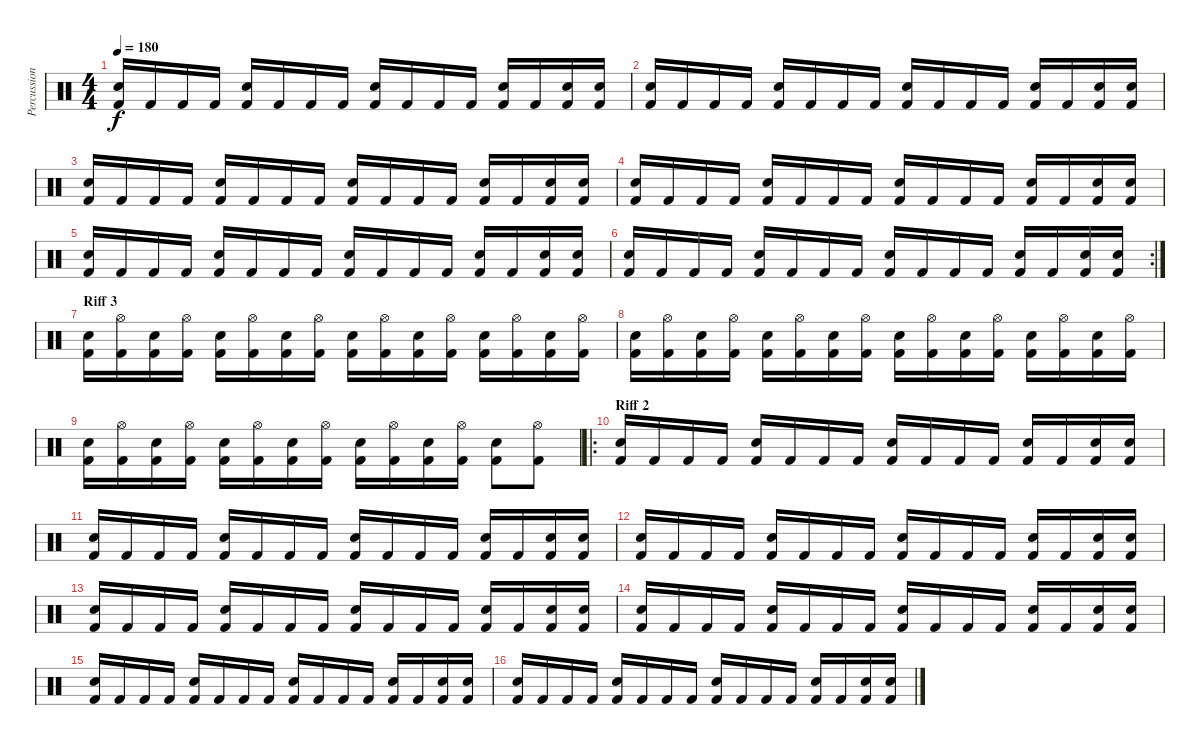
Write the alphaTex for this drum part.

\track ("Percussion" "Percussion") {instrument percussion}
\staff {score}
\articulation defaults
\ts (4 4)
\tempo 180
\clef neutral
\ks c
("Snare (hit) 2" "Kick (hit) 2").16{dy f} "Kick (hit) 2".16 "Kick (hit) 2".16 "Kick (hit) 2".16 ("Snare (hit) 2" "Kick (hit) 2").16 "Kick (hit) 2".16 "Kick (hit) 2".16 "Kick (hit) 2".16 ("Snare (hit) 2" "Kick (hit) 2").16 "Kick (hit) 2".16 "Kick (hit) 2".16 "Kick (hit) 2".16 ("Snare (hit) 2" "Kick (hit) 2").16 "Kick (hit) 2".16 ("Snare (hit) 2" "Kick (hit) 2").16 ("Snare (hit) 2" "Kick (hit) 2").16 |
("Snare (hit) 2" "Kick (hit) 2").16 "Kick (hit) 2".16 "Kick (hit) 2".16 "Kick (hit) 2".16 ("Snare (hit) 2" "Kick (hit) 2").16 "Kick (hit) 2".16 "Kick (hit) 2".16 "Kick (hit) 2".16 ("Snare (hit) 2" "Kick (hit) 2").16 "Kick (hit) 2".16 "Kick (hit) 2".16 "Kick (hit) 2".16 ("Snare (hit) 2" "Kick (hit) 2").16 "Kick (hit) 2".16 ("Snare (hit) 2" "Kick (hit) 2").16 ("Snare (hit) 2" "Kick (hit) 2").16 |
("Snare (hit) 2" "Kick (hit) 2").16 "Kick (hit) 2".16 "Kick (hit) 2".16 "Kick (hit) 2".16 ("Snare (hit) 2" "Kick (hit) 2").16 "Kick (hit) 2".16 "Kick (hit) 2".16 "Kick (hit) 2".16 ("Snare (hit) 2" "Kick (hit) 2").16 "Kick (hit) 2".16 "Kick (hit) 2".16 "Kick (hit) 2".16 ("Snare (hit) 2" "Kick (hit) 2").16 "Kick (hit) 2".16 ("Snare (hit) 2" "Kick (hit) 2").16 ("Snare (hit) 2" "Kick (hit) 2").16 |
("Snare (hit) 2" "Kick (hit) 2").16 "Kick (hit) 2".16 "Kick (hit) 2".16 "Kick (hit) 2".16 ("Snare (hit) 2" "Kick (hit) 2").16 "Kick (hit) 2".16 "Kick (hit) 2".16 "Kick (hit) 2".16 ("Snare (hit) 2" "Kick (hit) 2").16 "Kick (hit) 2".16 "Kick (hit) 2".16 "Kick (hit) 2".16 ("Snare (hit) 2" "Kick (hit) 2").16 "Kick (hit) 2".16 ("Snare (hit) 2" "Kick (hit) 2").16 ("Snare (hit) 2" "Kick (hit) 2").16 |
("Snare (hit) 2" "Kick (hit) 2").16 "Kick (hit) 2".16 "Kick (hit) 2".16 "Kick (hit) 2".16 ("Snare (hit) 2" "Kick (hit) 2").16 "Kick (hit) 2".16 "Kick (hit) 2".16 "Kick (hit) 2".16 ("Snare (hit) 2" "Kick (hit) 2").16 "Kick (hit) 2".16 "Kick (hit) 2".16 "Kick (hit) 2".16 ("Snare (hit) 2" "Kick (hit) 2").16 "Kick (hit) 2".16 ("Snare (hit) 2" "Kick (hit) 2").16 ("Snare (hit) 2" "Kick (hit) 2").16 |
\rc 2
("Snare (hit) 2" "Kick (hit) 2").16 "Kick (hit) 2".16 "Kick (hit) 2".16 "Kick (hit) 2".16 ("Snare (hit) 2" "Kick (hit) 2").16 "Kick (hit) 2".16 "Kick (hit) 2".16 "Kick (hit) 2".16 ("Snare (hit) 2" "Kick (hit) 2").16 "Kick (hit) 2".16 "Kick (hit) 2".16 "Kick (hit) 2".16 ("Snare (hit) 2" "Kick (hit) 2").16 "Kick (hit) 2".16 ("Snare (hit) 2" "Kick (hit) 2").16 ("Snare (hit) 2" "Kick (hit) 2").16 |
\section ("" "Riff 3")
("Snare (hit) 2" "Kick (hit) 2").16 ("Hi-Hat (open)" "Kick (hit) 2").16 ("Snare (hit) 2" "Kick (hit) 2").16 ("Hi-Hat (open)" "Kick (hit) 2").16 ("Snare (hit) 2" "Kick (hit) 2").16 ("Hi-Hat (open)" "Kick (hit) 2").16 ("Snare (hit) 2" "Kick (hit) 2").16 ("Hi-Hat (open)" "Kick (hit) 2").16 ("Snare (hit) 2" "Kick (hit) 2").16 ("Hi-Hat (open)" "Kick (hit) 2").16 ("Snare (hit) 2" "Kick (hit) 2").16 ("Hi-Hat (open)" "Kick (hit) 2").16 ("Snare (hit) 2" "Kick (hit) 2").16 ("Hi-Hat (open)" "Kick (hit) 2").16 ("Snare (hit) 2" "Kick (hit) 2").16 ("Hi-Hat (open)" "Kick (hit) 2").16 |
("Snare (hit) 2" "Kick (hit) 2").16 ("Hi-Hat (open)" "Kick (hit) 2").16 ("Snare (hit) 2" "Kick (hit) 2").16 ("Hi-Hat (open)" "Kick (hit) 2").16 ("Snare (hit) 2" "Kick (hit) 2").16 ("Hi-Hat (open)" "Kick (hit) 2").16 ("Snare (hit) 2" "Kick (hit) 2").16 ("Hi-Hat (open)" "Kick (hit) 2").16 ("Snare (hit) 2" "Kick (hit) 2").16 ("Hi-Hat (open)" "Kick (hit) 2").16 ("Snare (hit) 2" "Kick (hit) 2").16 ("Hi-Hat (open)" "Kick (hit) 2").16 ("Snare (hit) 2" "Kick (hit) 2").16 ("Hi-Hat (open)" "Kick (hit) 2").16 ("Snare (hit) 2" "Kick (hit) 2").16 ("Hi-Hat (open)" "Kick (hit) 2").16 |
("Snare (hit) 2" "Kick (hit) 2").16 ("Hi-Hat (open)" "Kick (hit) 2").16 ("Snare (hit) 2" "Kick (hit) 2").16 ("Hi-Hat (open)" "Kick (hit) 2").16 ("Snare (hit) 2" "Kick (hit) 2").16 ("Hi-Hat (open)" "Kick (hit) 2").16 ("Snare (hit) 2" "Kick (hit) 2").16 ("Hi-Hat (open)" "Kick (hit) 2").16 ("Snare (hit) 2" "Kick (hit) 2").16 ("Hi-Hat (open)" "Kick (hit) 2").16 ("Snare (hit) 2" "Kick (hit) 2").16 ("Hi-Hat (open)" "Kick (hit) 2").16 ("Snare (hit) 2" "Kick (hit) 2").8 ("Hi-Hat (open)" "Kick (hit) 2").8 |
\ro
\section ("" "Riff 2")
("Snare (hit) 2" "Kick (hit) 2").16 "Kick (hit) 2".16 "Kick (hit) 2".16 "Kick (hit) 2".16 ("Snare (hit) 2" "Kick (hit) 2").16 "Kick (hit) 2".16 "Kick (hit) 2".16 "Kick (hit) 2".16 ("Snare (hit) 2" "Kick (hit) 2").16 "Kick (hit) 2".16 "Kick (hit) 2".16 "Kick (hit) 2".16 ("Snare (hit) 2" "Kick (hit) 2").16 "Kick (hit) 2".16 ("Snare (hit) 2" "Kick (hit) 2").16 ("Snare (hit) 2" "Kick (hit) 2").16 |
("Snare (hit) 2" "Kick (hit) 2").16 "Kick (hit) 2".16 "Kick (hit) 2".16 "Kick (hit) 2".16 ("Snare (hit) 2" "Kick (hit) 2").16 "Kick (hit) 2".16 "Kick (hit) 2".16 "Kick (hit) 2".16 ("Snare (hit) 2" "Kick (hit) 2").16 "Kick (hit) 2".16 "Kick (hit) 2".16 "Kick (hit) 2".16 ("Snare (hit) 2" "Kick (hit) 2").16 "Kick (hit) 2".16 ("Snare (hit) 2" "Kick (hit) 2").16 ("Snare (hit) 2" "Kick (hit) 2").16 |
("Snare (hit) 2" "Kick (hit) 2").16 "Kick (hit) 2".16 "Kick (hit) 2".16 "Kick (hit) 2".16 ("Snare (hit) 2" "Kick (hit) 2").16 "Kick (hit) 2".16 "Kick (hit) 2".16 "Kick (hit) 2".16 ("Snare (hit) 2" "Kick (hit) 2").16 "Kick (hit) 2".16 "Kick (hit) 2".16 "Kick (hit) 2".16 ("Snare (hit) 2" "Kick (hit) 2").16 "Kick (hit) 2".16 ("Snare (hit) 2" "Kick (hit) 2").16 ("Snare (hit) 2" "Kick (hit) 2").16 |
("Snare (hit) 2" "Kick (hit) 2").16 "Kick (hit) 2".16 "Kick (hit) 2".16 "Kick (hit) 2".16 ("Snare (hit) 2" "Kick (hit) 2").16 "Kick (hit) 2".16 "Kick (hit) 2".16 "Kick (hit) 2".16 ("Snare (hit) 2" "Kick (hit) 2").16 "Kick (hit) 2".16 "Kick (hit) 2".16 "Kick (hit) 2".16 ("Snare (hit) 2" "Kick (hit) 2").16 "Kick (hit) 2".16 ("Snare (hit) 2" "Kick (hit) 2").16 ("Snare (hit) 2" "Kick (hit) 2").16 |
("Snare (hit) 2" "Kick (hit) 2").16 "Kick (hit) 2".16 "Kick (hit) 2".16 "Kick (hit) 2".16 ("Snare (hit) 2" "Kick (hit) 2").16 "Kick (hit) 2".16 "Kick (hit) 2".16 "Kick (hit) 2".16 ("Snare (hit) 2" "Kick (hit) 2").16 "Kick (hit) 2".16 "Kick (hit) 2".16 "Kick (hit) 2".16 ("Snare (hit) 2" "Kick (hit) 2").16 "Kick (hit) 2".16 ("Snare (hit) 2" "Kick (hit) 2").16 ("Snare (hit) 2" "Kick (hit) 2").16 |
("Snare (hit) 2" "Kick (hit) 2").16 "Kick (hit) 2".16 "Kick (hit) 2".16 "Kick (hit) 2".16 ("Snare (hit) 2" "Kick (hit) 2").16 "Kick (hit) 2".16 "Kick (hit) 2".16 "Kick (hit) 2".16 ("Snare (hit) 2" "Kick (hit) 2").16 "Kick (hit) 2".16 "Kick (hit) 2".16 "Kick (hit) 2".16 ("Snare (hit) 2" "Kick (hit) 2").16 "Kick (hit) 2".16 ("Snare (hit) 2" "Kick (hit) 2").16 ("Snare (hit) 2" "Kick (hit) 2").16 |
("Snare (hit) 2" "Kick (hit) 2").16 "Kick (hit) 2".16 "Kick (hit) 2".16 "Kick (hit) 2".16 ("Snare (hit) 2" "Kick (hit) 2").16 "Kick (hit) 2".16 "Kick (hit) 2".16 "Kick (hit) 2".16 ("Snare (hit) 2" "Kick (hit) 2").16 "Kick (hit) 2".16 "Kick (hit) 2".16 "Kick (hit) 2".16 ("Snare (hit) 2" "Kick (hit) 2").16 "Kick (hit) 2".16 ("Snare (hit) 2" "Kick (hit) 2").16 ("Snare (hit) 2" "Kick (hit) 2").16
